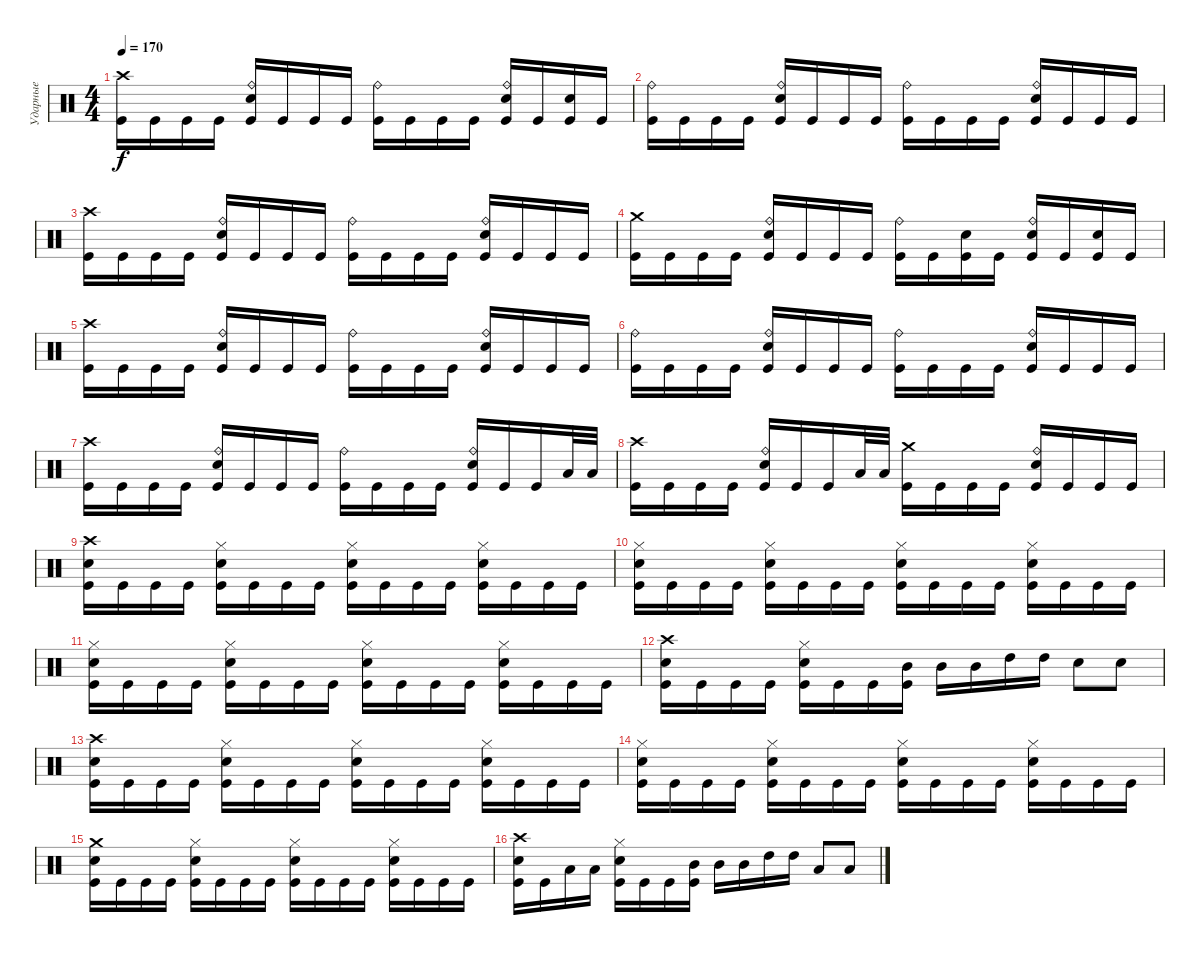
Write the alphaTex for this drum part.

\track ("Ударные" "Ударные") {instrument percussion}
\staff {score}
\articulation defaults
\ts (4 4)
\tempo 170
\clef neutral
\ks c
("Crash high (hit)" "Kick (hit)").16{dy f} "Kick (hit)".16 "Kick (hit)".16 "Kick (hit)".16 ("Ride (bell)" "Electric Snare (hit)" "Kick (hit)").16 "Kick (hit)".16 "Kick (hit)".16 "Kick (hit)".16 ("Ride (bell)" "Kick (hit)").16 "Kick (hit)".16 "Kick (hit)".16 "Kick (hit)".16 ("Ride (bell)" "Electric Snare (hit)" "Kick (hit)").16 "Kick (hit)".16 ("Electric Snare (hit)" "Kick (hit)").16 "Kick (hit)".16 |
("Ride (bell)" "Kick (hit)").16 "Kick (hit)".16 "Kick (hit)".16 "Kick (hit)".16 ("Ride (bell)" "Electric Snare (hit)" "Kick (hit)").16 "Kick (hit)".16 "Kick (hit)".16 "Kick (hit)".16 ("Ride (bell)" "Kick (hit)").16 "Kick (hit)".16 "Kick (hit)".16 "Kick (hit)".16 ("Ride (bell)" "Electric Snare (hit)" "Kick (hit)").16 "Kick (hit)".16 "Kick (hit)".16 "Kick (hit)".16 |
("Crash high (hit)" "Kick (hit)").16 "Kick (hit)".16 "Kick (hit)".16 "Kick (hit)".16 ("Ride (bell)" "Electric Snare (hit)" "Kick (hit)").16 "Kick (hit)".16 "Kick (hit)".16 "Kick (hit)".16 ("Ride (bell)" "Kick (hit)").16 "Kick (hit)".16 "Kick (hit)".16 "Kick (hit)".16 ("Ride (bell)" "Electric Snare (hit)" "Kick (hit)").16 "Kick (hit)".16 "Kick (hit)".16 "Kick (hit)".16 |
("Crash medium (hit)" "Kick (hit)").16 "Kick (hit)".16 "Kick (hit)".16 "Kick (hit)".16 ("Ride (bell)" "Electric Snare (hit)" "Kick (hit)").16 "Kick (hit)".16 "Kick (hit)".16 "Kick (hit)".16 ("Ride (bell)" "Kick (hit)").16 "Kick (hit)".16 ("Electric Snare (hit)" "Kick (hit)").16 "Kick (hit)".16 ("Ride (bell)" "Electric Snare (hit)" "Kick (hit)").16 "Kick (hit)".16 ("Electric Snare (hit)" "Kick (hit)").16 "Kick (hit)".16 |
("Crash high (hit)" "Kick (hit)").16 "Kick (hit)".16 "Kick (hit)".16 "Kick (hit)".16 ("Ride (bell)" "Electric Snare (hit)" "Kick (hit)").16 "Kick (hit)".16 "Kick (hit)".16 "Kick (hit)".16 ("Ride (bell)" "Kick (hit)").16 "Kick (hit)".16 "Kick (hit)".16 "Kick (hit)".16 ("Ride (bell)" "Electric Snare (hit)" "Kick (hit)").16 "Kick (hit)".16 "Kick (hit)".16 "Kick (hit)".16 |
("Ride (bell)" "Kick (hit)").16 "Kick (hit)".16 "Kick (hit)".16 "Kick (hit)".16 ("Ride (bell)" "Electric Snare (hit)" "Kick (hit)").16 "Kick (hit)".16 "Kick (hit)".16 "Kick (hit)".16 ("Ride (bell)" "Kick (hit)").16 "Kick (hit)".16 "Kick (hit)".16 "Kick (hit)".16 ("Ride (bell)" "Electric Snare (hit)" "Kick (hit)").16 "Kick (hit)".16 "Kick (hit)".16 "Kick (hit)".16 |
("Crash high (hit)" "Kick (hit)").16 "Kick (hit)".16 "Kick (hit)".16 "Kick (hit)".16 ("Ride (bell)" "Electric Snare (hit)" "Kick (hit)").16 "Kick (hit)".16 "Kick (hit)".16 "Kick (hit)".16 ("Ride (bell)" "Kick (hit)").16 "Kick (hit)".16 "Kick (hit)".16 "Kick (hit)".16 ("Ride (bell)" "Electric Snare (hit)" "Kick (hit)").16 "Kick (hit)".16 "Kick (hit)".16 "Low Tom (hit)".32 "Low Tom (hit)".32 |
("Crash high (hit)" "Kick (hit)").16 "Kick (hit)".16 "Kick (hit)".16 "Kick (hit)".16 ("Ride (bell)" "Electric Snare (hit)" "Kick (hit)").16 "Kick (hit)".16 "Kick (hit)".16 "Low Tom (hit)".32 "Low Tom (hit)".32 ("Crash medium (hit)" "Kick (hit)").16 "Kick (hit)".16 "Kick (hit)".16 "Kick (hit)".16 ("Ride (bell)" "Electric Snare (hit)" "Kick (hit)").16 "Kick (hit)".16 "Kick (hit)".16 "Kick (hit)".16 |
("Crash high (hit)" "Electric Snare (hit)" "Kick (hit)").16 "Kick (hit)".16 "Kick (hit)".16 "Kick (hit)".16 ("Hi-Hat (closed)" "Electric Snare (hit)" "Kick (hit)").16 "Kick (hit)".16 "Kick (hit)".16 "Kick (hit)".16 ("Hi-Hat (closed)" "Electric Snare (hit)" "Kick (hit)").16 "Kick (hit)".16 "Kick (hit)".16 "Kick (hit)".16 ("Hi-Hat (closed)" "Electric Snare (hit)" "Kick (hit)").16 "Kick (hit)".16 "Kick (hit)".16 "Kick (hit)".16 |
("Hi-Hat (closed)" "Electric Snare (hit)" "Kick (hit)").16 "Kick (hit)".16 "Kick (hit)".16 "Kick (hit)".16 ("Hi-Hat (closed)" "Electric Snare (hit)" "Kick (hit)").16 "Kick (hit)".16 "Kick (hit)".16 "Kick (hit)".16 ("Hi-Hat (closed)" "Electric Snare (hit)" "Kick (hit)").16 "Kick (hit)".16 "Kick (hit)".16 "Kick (hit)".16 ("Hi-Hat (closed)" "Electric Snare (hit)" "Kick (hit)").16 "Kick (hit)".16 "Kick (hit)".16 "Kick (hit)".16 |
("Hi-Hat (closed)" "Electric Snare (hit)" "Kick (hit)").16 "Kick (hit)".16 "Kick (hit)".16 "Kick (hit)".16 ("Hi-Hat (closed)" "Electric Snare (hit)" "Kick (hit)").16 "Kick (hit)".16 "Kick (hit)".16 "Kick (hit)".16 ("Hi-Hat (closed)" "Electric Snare (hit)" "Kick (hit)").16 "Kick (hit)".16 "Kick (hit)".16 "Kick (hit)".16 ("Hi-Hat (closed)" "Electric Snare (hit)" "Kick (hit)").16 "Kick (hit)".16 "Kick (hit)".16 "Kick (hit)".16 |
("Crash high (hit)" "Electric Snare (hit)" "Kick (hit)").16 "Kick (hit)".16 "Kick (hit)".16 "Kick (hit)".16 ("Hi-Hat (closed)" "Electric Snare (hit)" "Kick (hit)").16 "Kick (hit)".16 "Kick (hit)".16 ("Mid Tom (hit)" "Kick (hit)").16 "Mid Tom (hit)".16 "Mid Tom (hit)".16 "High Tom (hit)".16 "High Tom (hit)".16 "Electric Snare (hit)".8 "Electric Snare (hit)".8 |
("Crash high (hit)" "Electric Snare (hit)" "Kick (hit)").16 "Kick (hit)".16 "Kick (hit)".16 "Kick (hit)".16 ("Hi-Hat (closed)" "Electric Snare (hit)" "Kick (hit)").16 "Kick (hit)".16 "Kick (hit)".16 "Kick (hit)".16 ("Hi-Hat (closed)" "Electric Snare (hit)" "Kick (hit)").16 "Kick (hit)".16 "Kick (hit)".16 "Kick (hit)".16 ("Hi-Hat (closed)" "Electric Snare (hit)" "Kick (hit)").16 "Kick (hit)".16 "Kick (hit)".16 "Kick (hit)".16 |
("Hi-Hat (closed)" "Electric Snare (hit)" "Kick (hit)").16 "Kick (hit)".16 "Kick (hit)".16 "Kick (hit)".16 ("Hi-Hat (closed)" "Electric Snare (hit)" "Kick (hit)").16 "Kick (hit)".16 "Kick (hit)".16 "Kick (hit)".16 ("Hi-Hat (closed)" "Electric Snare (hit)" "Kick (hit)").16 "Kick (hit)".16 "Kick (hit)".16 "Kick (hit)".16 ("Hi-Hat (closed)" "Electric Snare (hit)" "Kick (hit)").16 "Kick (hit)".16 "Kick (hit)".16 "Kick (hit)".16 |
("Crash medium (hit)" "Electric Snare (hit)" "Kick (hit)").16 "Kick (hit)".16 "Kick (hit)".16 "Kick (hit)".16 ("Hi-Hat (closed)" "Electric Snare (hit)" "Kick (hit)").16 "Kick (hit)".16 "Kick (hit)".16 "Kick (hit)".16 ("Hi-Hat (closed)" "Electric Snare (hit)" "Kick (hit)").16 "Kick (hit)".16 "Kick (hit)".16 "Kick (hit)".16 ("Hi-Hat (closed)" "Electric Snare (hit)" "Kick (hit)").16 "Kick (hit)".16 "Kick (hit)".16 "Kick (hit)".16 |
("Crash high (hit)" "Electric Snare (hit)" "Kick (hit)").16 "Kick (hit)".16 "Low Tom (hit)".16 "Low Tom (hit)".16 ("Hi-Hat (closed)" "Electric Snare (hit)" "Kick (hit)").16 "Kick (hit)".16 "Kick (hit)".16 ("Mid Tom (hit)" "Kick (hit)").16 "Mid Tom (hit)".16 "Mid Tom (hit)".16 "High Tom (hit)".16 "High Tom (hit)".16 "Low Tom (hit)".8 "Low Tom (hit)".8
